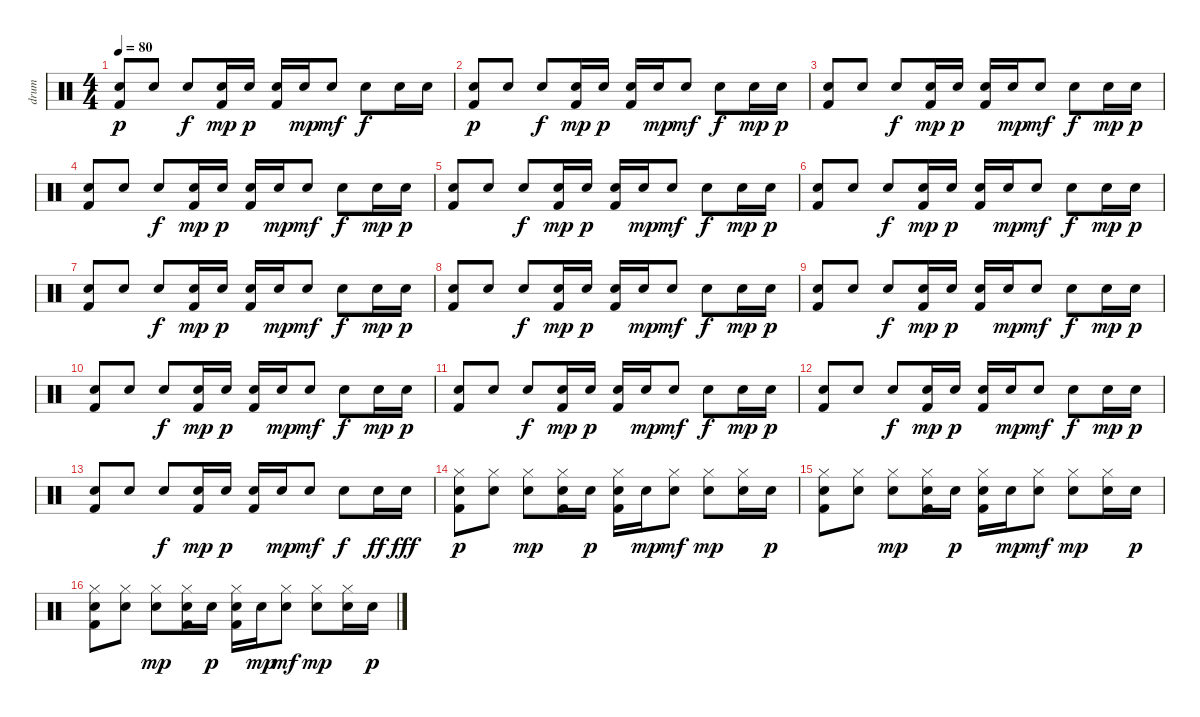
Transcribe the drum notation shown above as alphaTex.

\track ("drum" "drum") {instrument percussion}
\staff {score}
\articulation defaults
\ts (4 4)
\tempo 80
\clef neutral
\ks c
("Snare (hit) 2" "Kick (hit) 2").8{dy p} "Snare (hit) 2".8 "Snare (hit) 2".8{dy f} ("Snare (hit) 2" "Kick (hit) 2").16{dy mp} "Snare (hit) 2".16{dy p} ("Snare (hit) 2" "Kick (hit) 2").16 "Snare (hit) 2".16{dy mp} "Snare (hit) 2".8{dy mf} "Snare (hit) 2".8{dy f} "Snare (hit) 2".16 "Snare (hit) 2".16 |
("Snare (hit) 2" "Kick (hit) 2").8{dy p} "Snare (hit) 2".8 "Snare (hit) 2".8{dy f} ("Snare (hit) 2" "Kick (hit) 2").16{dy mp} "Snare (hit) 2".16{dy p} ("Snare (hit) 2" "Kick (hit) 2").16 "Snare (hit) 2".16{dy mp} "Snare (hit) 2".8{dy mf} "Snare (hit) 2".8{dy f} "Snare (hit) 2".16{dy mp} "Snare (hit) 2".16{dy p} |
("Snare (hit) 2" "Kick (hit) 2").8 "Snare (hit) 2".8 "Snare (hit) 2".8{dy f} ("Snare (hit) 2" "Kick (hit) 2").16{dy mp} "Snare (hit) 2".16{dy p} ("Snare (hit) 2" "Kick (hit) 2").16 "Snare (hit) 2".16{dy mp} "Snare (hit) 2".8{dy mf} "Snare (hit) 2".8{dy f} "Snare (hit) 2".16{dy mp} "Snare (hit) 2".16{dy p} |
("Snare (hit) 2" "Kick (hit) 2").8 "Snare (hit) 2".8 "Snare (hit) 2".8{dy f} ("Snare (hit) 2" "Kick (hit) 2").16{dy mp} "Snare (hit) 2".16{dy p} ("Snare (hit) 2" "Kick (hit) 2").16 "Snare (hit) 2".16{dy mp} "Snare (hit) 2".8{dy mf} "Snare (hit) 2".8{dy f} "Snare (hit) 2".16{dy mp} "Snare (hit) 2".16{dy p} |
("Snare (hit) 2" "Kick (hit) 2").8 "Snare (hit) 2".8 "Snare (hit) 2".8{dy f} ("Snare (hit) 2" "Kick (hit) 2").16{dy mp} "Snare (hit) 2".16{dy p} ("Snare (hit) 2" "Kick (hit) 2").16 "Snare (hit) 2".16{dy mp} "Snare (hit) 2".8{dy mf} "Snare (hit) 2".8{dy f} "Snare (hit) 2".16{dy mp} "Snare (hit) 2".16{dy p} |
("Snare (hit) 2" "Kick (hit) 2").8 "Snare (hit) 2".8 "Snare (hit) 2".8{dy f} ("Snare (hit) 2" "Kick (hit) 2").16{dy mp} "Snare (hit) 2".16{dy p} ("Snare (hit) 2" "Kick (hit) 2").16 "Snare (hit) 2".16{dy mp} "Snare (hit) 2".8{dy mf} "Snare (hit) 2".8{dy f} "Snare (hit) 2".16{dy mp} "Snare (hit) 2".16{dy p} |
("Snare (hit) 2" "Kick (hit) 2").8 "Snare (hit) 2".8 "Snare (hit) 2".8{dy f} ("Snare (hit) 2" "Kick (hit) 2").16{dy mp} "Snare (hit) 2".16{dy p} ("Snare (hit) 2" "Kick (hit) 2").16 "Snare (hit) 2".16{dy mp} "Snare (hit) 2".8{dy mf} "Snare (hit) 2".8{dy f} "Snare (hit) 2".16{dy mp} "Snare (hit) 2".16{dy p} |
("Snare (hit) 2" "Kick (hit) 2").8 "Snare (hit) 2".8 "Snare (hit) 2".8{dy f} ("Snare (hit) 2" "Kick (hit) 2").16{dy mp} "Snare (hit) 2".16{dy p} ("Snare (hit) 2" "Kick (hit) 2").16 "Snare (hit) 2".16{dy mp} "Snare (hit) 2".8{dy mf} "Snare (hit) 2".8{dy f} "Snare (hit) 2".16{dy mp} "Snare (hit) 2".16{dy p} |
("Snare (hit) 2" "Kick (hit) 2").8 "Snare (hit) 2".8 "Snare (hit) 2".8{dy f} ("Snare (hit) 2" "Kick (hit) 2").16{dy mp} "Snare (hit) 2".16{dy p} ("Snare (hit) 2" "Kick (hit) 2").16 "Snare (hit) 2".16{dy mp} "Snare (hit) 2".8{dy mf} "Snare (hit) 2".8{dy f} "Snare (hit) 2".16{dy mp} "Snare (hit) 2".16{dy p} |
("Snare (hit) 2" "Kick (hit) 2").8 "Snare (hit) 2".8 "Snare (hit) 2".8{dy f} ("Snare (hit) 2" "Kick (hit) 2").16{dy mp} "Snare (hit) 2".16{dy p} ("Snare (hit) 2" "Kick (hit) 2").16 "Snare (hit) 2".16{dy mp} "Snare (hit) 2".8{dy mf} "Snare (hit) 2".8{dy f} "Snare (hit) 2".16{dy mp} "Snare (hit) 2".16{dy p} |
("Snare (hit) 2" "Kick (hit) 2").8 "Snare (hit) 2".8 "Snare (hit) 2".8{dy f} ("Snare (hit) 2" "Kick (hit) 2").16{dy mp} "Snare (hit) 2".16{dy p} ("Snare (hit) 2" "Kick (hit) 2").16 "Snare (hit) 2".16{dy mp} "Snare (hit) 2".8{dy mf} "Snare (hit) 2".8{dy f} "Snare (hit) 2".16{dy mp} "Snare (hit) 2".16{dy p} |
("Snare (hit) 2" "Kick (hit) 2").8 "Snare (hit) 2".8 "Snare (hit) 2".8{dy f} ("Snare (hit) 2" "Kick (hit) 2").16{dy mp} "Snare (hit) 2".16{dy p} ("Snare (hit) 2" "Kick (hit) 2").16 "Snare (hit) 2".16{dy mp} "Snare (hit) 2".8{dy mf} "Snare (hit) 2".8{dy f} "Snare (hit) 2".16{dy mp} "Snare (hit) 2".16{dy p} |
("Snare (hit) 2" "Kick (hit) 2").8 "Snare (hit) 2".8 "Snare (hit) 2".8{dy f} ("Snare (hit) 2" "Kick (hit) 2").16{dy mp} "Snare (hit) 2".16{dy p} ("Snare (hit) 2" "Kick (hit) 2").16 "Snare (hit) 2".16{dy mp} "Snare (hit) 2".8{dy mf} "Snare (hit) 2".8{dy f} "Snare (hit) 2".16{dy ff} "Snare (hit) 2".16{dy fff} |
("Hi-Hat (closed)" "Snare (hit) 2" "Kick (hit) 2").8{dy p} ("Hi-Hat (closed)" "Snare (hit) 2").8 ("Hi-Hat (closed)" "Snare (hit) 2").8{dy mp} ("Hi-Hat (closed)" "Snare (hit) 2" "Kick (hit) 2").16 "Snare (hit) 2".16{dy p} ("Hi-Hat (closed)" "Snare (hit) 2" "Kick (hit) 2").16 "Snare (hit) 2".16{dy mp} ("Hi-Hat (closed)" "Snare (hit) 2").8{dy mf} ("Hi-Hat (closed)" "Snare (hit) 2").8{dy mp} ("Hi-Hat (closed)" "Snare (hit) 2").16 "Snare (hit) 2".16{dy p} |
("Hi-Hat (closed)" "Snare (hit) 2" "Kick (hit) 2").8 ("Hi-Hat (closed)" "Snare (hit) 2").8 ("Hi-Hat (closed)" "Snare (hit) 2").8{dy mp} ("Hi-Hat (closed)" "Snare (hit) 2" "Kick (hit) 2").16 "Snare (hit) 2".16{dy p} ("Hi-Hat (closed)" "Snare (hit) 2" "Kick (hit) 2").16 "Snare (hit) 2".16{dy mp} ("Hi-Hat (closed)" "Snare (hit) 2").8{dy mf} ("Hi-Hat (closed)" "Snare (hit) 2").8{dy mp} ("Hi-Hat (closed)" "Snare (hit) 2").16 "Snare (hit) 2".16{dy p} |
("Hi-Hat (closed)" "Snare (hit) 2" "Kick (hit) 2").8 ("Hi-Hat (closed)" "Snare (hit) 2").8 ("Hi-Hat (closed)" "Snare (hit) 2").8{dy mp} ("Hi-Hat (closed)" "Snare (hit) 2" "Kick (hit) 2").16 "Snare (hit) 2".16{dy p} ("Hi-Hat (closed)" "Snare (hit) 2" "Kick (hit) 2").16 "Snare (hit) 2".16{dy mp} ("Hi-Hat (closed)" "Snare (hit) 2").8{dy mf} ("Hi-Hat (closed)" "Snare (hit) 2").8{dy mp} ("Hi-Hat (closed)" "Snare (hit) 2").16 "Snare (hit) 2".16{dy p}
